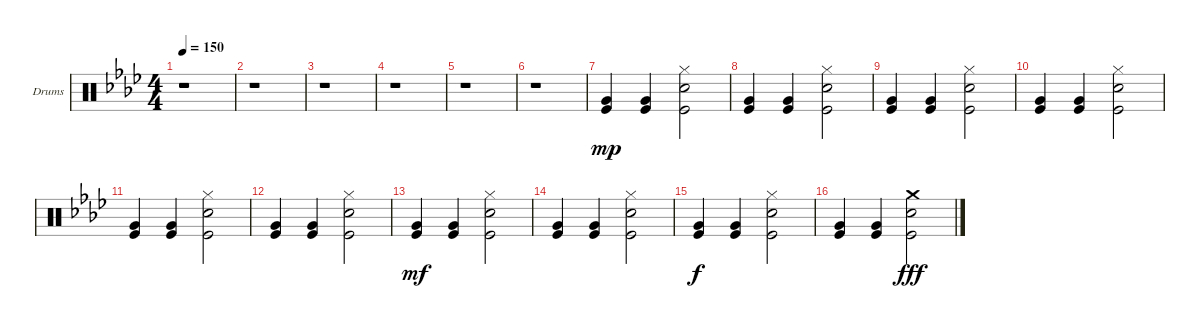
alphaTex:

\bracketExtendMode groupsimilarinstruments
\firstSystemTrackNameOrientation horizontal
\otherSystemsTrackNameOrientation horizontal
\track ("Drums" "Drums") {instrument percussion}
\staff {score}
\articulation defaults
\ts (4 4)
\tempo 150
\clef neutral
\ks ab
r.1{dy f} |
r.1 |
r.1 |
r.1 |
r.1 |
r.1 |
("Kick (hit)" "Very Low Tom (hit)").4{dy mp} ("Kick (hit)" "Very Low Tom (hit)").4 ("Kick (hit)" "Snare (hit) 2" "Hi-Hat (closed)").2 |
("Kick (hit)" "Very Low Tom (hit)").4 ("Kick (hit)" "Very Low Tom (hit)").4 ("Kick (hit)" "Snare (hit) 2" "Hi-Hat (closed)").2 |
("Kick (hit)" "Very Low Tom (hit)").4 ("Kick (hit)" "Very Low Tom (hit)").4 ("Kick (hit)" "Snare (hit) 2" "Hi-Hat (closed)").2 |
("Kick (hit)" "Very Low Tom (hit)").4 ("Kick (hit)" "Very Low Tom (hit)").4 ("Kick (hit)" "Snare (hit) 2" "Hi-Hat (closed)").2 |
("Kick (hit)" "Very Low Tom (hit)").4 ("Kick (hit)" "Very Low Tom (hit)").4 ("Kick (hit)" "Snare (hit) 2" "Hi-Hat (closed)").2 |
("Kick (hit)" "Very Low Tom (hit)").4 ("Kick (hit)" "Very Low Tom (hit)").4 ("Kick (hit)" "Snare (hit) 2" "Hi-Hat (closed)").2 |
("Kick (hit)" "Very Low Tom (hit)").4{dy mf} ("Kick (hit)" "Very Low Tom (hit)").4 ("Kick (hit)" "Snare (hit) 2" "Hi-Hat (closed)").2 |
("Kick (hit)" "Very Low Tom (hit)").4 ("Kick (hit)" "Very Low Tom (hit)").4 ("Kick (hit)" "Snare (hit) 2" "Hi-Hat (closed)").2 |
("Kick (hit)" "Very Low Tom (hit)").4{dy f} ("Kick (hit)" "Very Low Tom (hit)").4 ("Kick (hit)" "Snare (hit) 2" "Hi-Hat (closed)").2 |
("Kick (hit)" "Very Low Tom (hit)").4 ("Kick (hit)" "Very Low Tom (hit)").4 ("Kick (hit)" "Snare (hit) 2" "Crash medium (hit)").2{dy fff}
